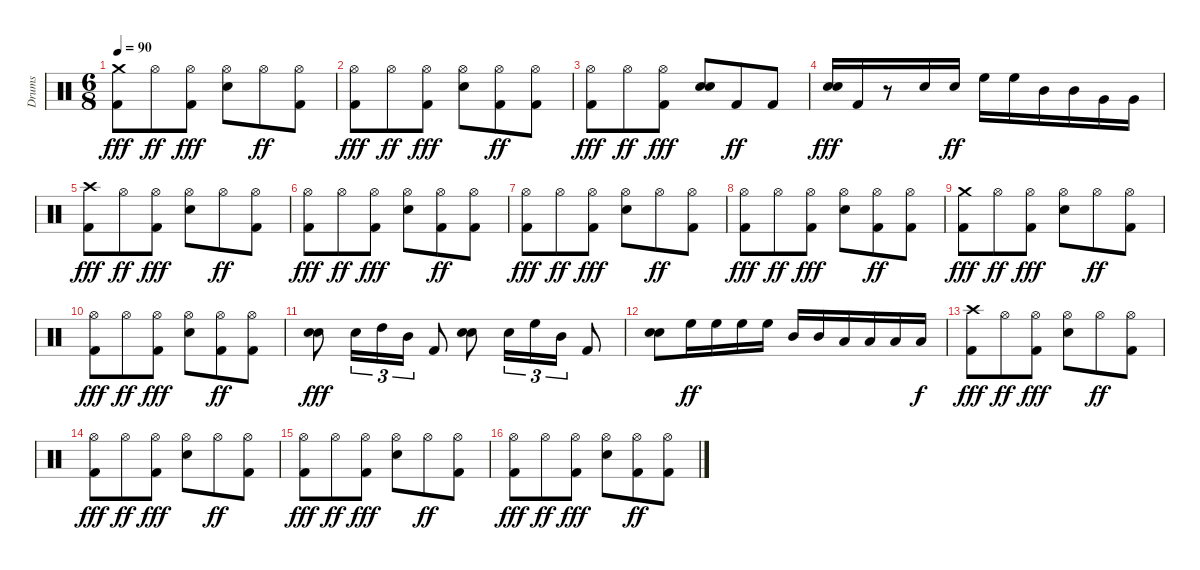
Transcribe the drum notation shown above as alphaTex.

\track ("Drums" "Drums") {instrument percussion}
\staff {score}
\articulation defaults
\ts (6 8)
\tempo 90
\clef neutral
\ks c
("Kick (hit) 2" "Crash medium (hit)").8{dy fff} "Hi-Hat (open)".8{dy ff} ("Hi-Hat (open)" "Kick (hit) 2").8{dy fff} ("Hi-Hat (open)" "Snare (hit) 2").8 "Hi-Hat (open)".8{dy ff} ("Hi-Hat (open)" "Kick (hit) 2").8 |
("Hi-Hat (open)" "Kick (hit) 2").8{dy fff} "Hi-Hat (open)".8{dy ff} ("Hi-Hat (open)" "Kick (hit) 2").8{dy fff} ("Hi-Hat (open)" "Snare (hit) 2").8 ("Hi-Hat (open)" "Kick (hit) 2").8{dy ff} ("Hi-Hat (open)" "Kick (hit) 2").8 |
("Hi-Hat (open)" "Kick (hit) 2").8{dy fff} "Hi-Hat (open)".8{dy ff} ("Hi-Hat (open)" "Kick (hit) 2").8{dy fff} ("Snare (hit) 2" "Snare (hit) 2").8 "Kick (hit) 2".8{dy ff} "Kick (hit) 2".8 |
("Snare (hit) 2" "Snare (hit) 2").16{dy fff} "Kick (hit) 2".16 r.8 "Snare (hit) 2".16 "Snare (hit) 2".16{dy ff} "High Floor Tom (hit)".16 "High Floor Tom (hit)".16 "Mid Tom (hit)".16 "Mid Tom (hit)".16 "Very Low Tom (hit)".16 "Very Low Tom (hit)".16 |
("Kick (hit) 2" "Crash high (hit)").8{dy fff} "Hi-Hat (open)".8{dy ff} ("Hi-Hat (open)" "Kick (hit) 2").8{dy fff} ("Hi-Hat (open)" "Snare (hit) 2").8 "Hi-Hat (open)".8{dy ff} ("Hi-Hat (open)" "Kick (hit) 2").8 |
("Hi-Hat (open)" "Kick (hit) 2").8{dy fff} "Hi-Hat (open)".8{dy ff} ("Hi-Hat (open)" "Kick (hit) 2").8{dy fff} ("Hi-Hat (open)" "Snare (hit) 2").8 ("Hi-Hat (open)" "Kick (hit) 2").8{dy ff} ("Hi-Hat (open)" "Kick (hit) 2").8 |
("Hi-Hat (open)" "Kick (hit) 2").8{dy fff} "Hi-Hat (open)".8{dy ff} ("Hi-Hat (open)" "Kick (hit) 2").8{dy fff} ("Hi-Hat (open)" "Snare (hit) 2").8 "Hi-Hat (open)".8{dy ff} ("Hi-Hat (open)" "Kick (hit) 2").8 |
("Hi-Hat (open)" "Kick (hit) 2").8{dy fff} "Hi-Hat (open)".8{dy ff} ("Hi-Hat (open)" "Kick (hit) 2").8{dy fff} ("Hi-Hat (open)" "Snare (hit) 2").8 ("Hi-Hat (open)" "Kick (hit) 2").8{dy ff} ("Hi-Hat (open)" "Kick (hit) 2").8 |
("Kick (hit) 2" "Crash medium (hit)").8{dy fff} "Hi-Hat (open)".8{dy ff} ("Hi-Hat (open)" "Kick (hit) 2").8{dy fff} ("Hi-Hat (open)" "Snare (hit) 2").8 "Hi-Hat (open)".8{dy ff} ("Hi-Hat (open)" "Kick (hit) 2").8 |
("Hi-Hat (open)" "Kick (hit) 2").8{dy fff} "Hi-Hat (open)".8{dy ff} ("Hi-Hat (open)" "Kick (hit) 2").8{dy fff} ("Hi-Hat (open)" "Snare (hit) 2").8 ("Hi-Hat (open)" "Kick (hit) 2").8{dy ff} ("Hi-Hat (open)" "Kick (hit) 2").8 |
("Snare (hit) 2" "Snare (hit) 2").8{dy fff} "Snare (hit) 2".16{tu (3 2)} "High Tom (hit)".16{tu (3 2)} "Mid Tom (hit)".16{tu (3 2)} "Kick (hit) 2".8 ("Snare (hit) 2" "Snare (hit) 2").8 "Snare (hit) 2".16{tu (3 2)} "High Floor Tom (hit)".16{tu (3 2)} "Mid Tom (hit)".16{tu (3 2)} "Kick (hit) 2".8 |
("Electric Snare (hit)" "Electric Snare (hit)").8 "High Floor Tom (hit)".16{dy ff} "High Floor Tom (hit)".16 "High Floor Tom (hit)".16 "High Floor Tom (hit)".16 "Mid Tom (hit)".16 "Mid Tom (hit)".16 "Low Tom (hit)".16 "Low Tom (hit)".16 "Low Tom (hit)".16 "Low Tom (hit)".16{dy f} |
("Kick (hit) 2" "Crash high (hit)").8{dy fff} "Hi-Hat (open)".8{dy ff} ("Hi-Hat (open)" "Kick (hit) 2").8{dy fff} ("Hi-Hat (open)" "Snare (hit) 2").8 "Hi-Hat (open)".8{dy ff} ("Hi-Hat (open)" "Kick (hit) 2").8 |
("Hi-Hat (open)" "Kick (hit) 2").8{dy fff} "Hi-Hat (open)".8{dy ff} ("Hi-Hat (open)" "Kick (hit) 2").8{dy fff} ("Hi-Hat (open)" "Snare (hit) 2").8 "Hi-Hat (open)".8{dy ff} ("Hi-Hat (open)" "Kick (hit) 2").8 |
("Hi-Hat (open)" "Kick (hit) 2").8{dy fff} "Hi-Hat (open)".8{dy ff} ("Hi-Hat (open)" "Kick (hit) 2").8{dy fff} ("Hi-Hat (open)" "Snare (hit) 2").8 "Hi-Hat (open)".8{dy ff} ("Hi-Hat (open)" "Kick (hit) 2").8 |
("Hi-Hat (open)" "Kick (hit) 2").8{dy fff} "Hi-Hat (open)".8{dy ff} ("Hi-Hat (open)" "Kick (hit) 2").8{dy fff} ("Hi-Hat (open)" "Snare (hit) 2").8 ("Hi-Hat (open)" "Kick (hit) 2").8{dy ff} ("Hi-Hat (open)" "Kick (hit) 2").8
